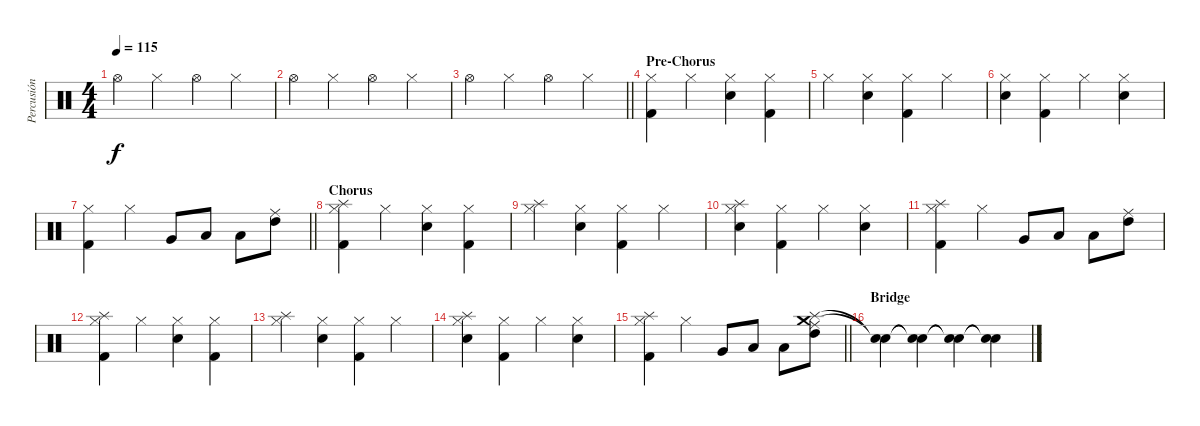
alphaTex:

\track ("Percusión" "Percusión") {instrument percussion}
\staff {score}
\articulation defaults
\ts (4 4)
\tempo 115
\clef neutral
\ks c "Hi-Hat (open)".4{dy f} "Hi-Hat (closed)".4 "Hi-Hat (open)".4 "Hi-Hat (closed)".4
|
"Hi-Hat (open)".4 "Hi-Hat (closed)".4 "Hi-Hat (open)".4 "Hi-Hat (closed)".4 |
\barLineRight lightlight "Hi-Hat (open)".4 "Hi-Hat (closed)".4 "Hi-Hat (open)".4 "Hi-Hat (closed)".4
|
\section ("" "Pre-Chorus")
("Hi-Hat (closed)" "Kick (hit) 2").4 "Hi-Hat (closed)".4 ("Snare (hit) 2" "Hi-Hat (closed)").4 ("Hi-Hat (closed)" "Kick (hit) 2").4 |
"Hi-Hat (closed)".4 ("Snare (hit) 2" "Hi-Hat (closed)").4 ("Hi-Hat (closed)" "Kick (hit) 2").4 "Hi-Hat (closed)".4 |
("Snare (hit) 2" "Hi-Hat (closed)").4 ("Hi-Hat (closed)" "Kick (hit) 2").4 "Hi-Hat (closed)".4 ("Snare (hit) 2" "Hi-Hat (closed)").4 |
\barLineRight lightlight
("Hi-Hat (closed)" "Kick (hit) 2").4 "Hi-Hat (closed)".4 "Very Low Tom (hit)".8 "Low Floor Tom (hit)".8 "Low Tom (hit)".8 ("High Tom (hit)" "Ride (middle)").8 |
\section ("" "Chorus")
("Splash (hit)" "Hi-Hat (closed)" "Kick (hit) 2").4 "Hi-Hat (closed)".4 ("Snare (hit) 2" "Hi-Hat (closed)").4 ("Hi-Hat (closed)" "Kick (hit) 2").4 |
("Splash (hit)" "Hi-Hat (closed)").4 ("Snare (hit) 2" "Hi-Hat (closed)").4 ("Hi-Hat (closed)" "Kick (hit) 2").4 "Hi-Hat (closed)".4 |
("Splash (hit)" "Snare (hit) 2" "Hi-Hat (closed)").4 ("Hi-Hat (closed)" "Kick (hit) 2").4 "Hi-Hat (closed)".4 ("Snare (hit) 2" "Hi-Hat (closed)").4 |
("Splash (hit)" "Hi-Hat (closed)" "Kick (hit) 2").4 "Hi-Hat (closed)".4 "Very Low Tom (hit)".8 "Low Floor Tom (hit)".8 "Low Tom (hit)".8 ("High Tom (hit)" "Ride (middle)").8 |
("Splash (hit)" "Hi-Hat (closed)" "Kick (hit) 2").4 "Hi-Hat (closed)".4 ("Snare (hit) 2" "Hi-Hat (closed)").4 ("Hi-Hat (closed)" "Kick (hit) 2").4 |
("Splash (hit)" "Hi-Hat (closed)").4 ("Snare (hit) 2" "Hi-Hat (closed)").4 ("Hi-Hat (closed)" "Kick (hit) 2").4 "Hi-Hat (closed)".4 |
("Splash (hit)" "Snare (hit) 2" "Hi-Hat (closed)").4 ("Hi-Hat (closed)" "Kick (hit) 2").4 "Hi-Hat (closed)".4 ("Snare (hit) 2" "Hi-Hat (closed)").4 |
\barLineRight lightlight
("Splash (hit)" "Hi-Hat (closed)" "Kick (hit) 2").4 "Hi-Hat (closed)".4 "Very Low Tom (hit)".8 "Low Floor Tom (hit)".8 "Low Tom (hit)".8 ("Crash medium (hit)" "Splash (hit)" "High Tom (hit)" "Ride (middle)").8 |
\section ("" "Bridge")
("Snare (hit)"{t} "Snare (hit)"{t}).4 ("Snare (hit)"{t} "Snare (hit)"{t}).4 ("Snare (hit)"{t} "Snare (hit)"{t}).4 ("Snare (hit)"{t} "Snare (hit)"{t}).4
